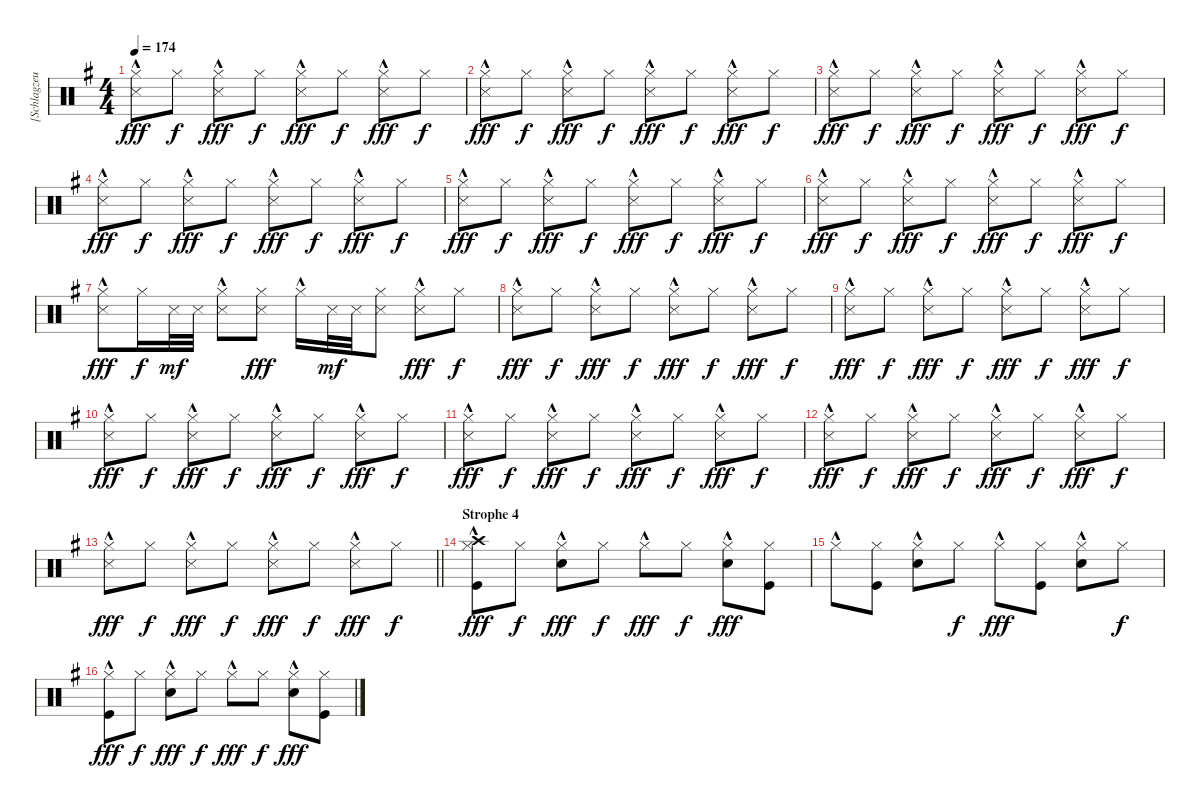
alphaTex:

\track ("[Schlagzeug]" "[Schlagzeu") {instrument percussion}
\staff {score}
\articulation defaults
\ts (4 4)
\tempo 174
\clef neutral
\ks g
("Hi-Hat (closed)"{hac} "Snare (side stick) 3").8{dy fff} "Hi-Hat (closed)".8{dy f} ("Hi-Hat (closed)"{hac} "Snare (side stick) 3").8{dy fff} "Hi-Hat (closed)".8{dy f} ("Hi-Hat (closed)"{hac} "Snare (side stick) 3").8{dy fff} "Hi-Hat (closed)".8{dy f} ("Hi-Hat (closed)"{hac} "Snare (side stick) 3").8{dy fff} "Hi-Hat (closed)".8{dy f} |
("Hi-Hat (closed)"{hac} "Snare (side stick) 3").8{dy fff} "Hi-Hat (closed)".8{dy f} ("Hi-Hat (closed)"{hac} "Snare (side stick) 3").8{dy fff} "Hi-Hat (closed)".8{dy f} ("Hi-Hat (closed)"{hac} "Snare (side stick) 3").8{dy fff} "Hi-Hat (closed)".8{dy f} ("Hi-Hat (closed)"{hac} "Snare (side stick) 3").8{dy fff} "Hi-Hat (closed)".8{dy f} |
("Hi-Hat (closed)"{hac} "Snare (side stick) 3").8{dy fff} "Hi-Hat (closed)".8{dy f} ("Hi-Hat (closed)"{hac} "Snare (side stick) 3").8{dy fff} "Hi-Hat (closed)".8{dy f} ("Hi-Hat (closed)"{hac} "Snare (side stick) 3").8{dy fff} "Hi-Hat (closed)".8{dy f} ("Hi-Hat (closed)"{hac} "Snare (side stick) 3").8{dy fff} "Hi-Hat (closed)".8{dy f} |
("Hi-Hat (closed)"{hac} "Snare (side stick) 3").8{dy fff} "Hi-Hat (closed)".8{dy f} ("Hi-Hat (closed)"{hac} "Snare (side stick) 3").8{dy fff} "Hi-Hat (closed)".8{dy f} ("Hi-Hat (closed)"{hac} "Snare (side stick) 3").8{dy fff} "Hi-Hat (closed)".8{dy f} ("Hi-Hat (closed)"{hac} "Snare (side stick) 3").8{dy fff} "Hi-Hat (closed)".8{dy f} |
("Hi-Hat (closed)"{hac} "Snare (side stick) 3").8{dy fff} "Hi-Hat (closed)".8{dy f} ("Hi-Hat (closed)"{hac} "Snare (side stick) 3").8{dy fff} "Hi-Hat (closed)".8{dy f} ("Hi-Hat (closed)"{hac} "Snare (side stick) 3").8{dy fff} "Hi-Hat (closed)".8{dy f} ("Hi-Hat (closed)"{hac} "Snare (side stick) 3").8{dy fff} "Hi-Hat (closed)".8{dy f} |
("Hi-Hat (closed)"{hac} "Snare (side stick) 3").8{dy fff} "Hi-Hat (closed)".8{dy f} ("Hi-Hat (closed)"{hac} "Snare (side stick) 3").8{dy fff} "Hi-Hat (closed)".8{dy f} ("Hi-Hat (closed)"{hac} "Snare (side stick) 3").8{dy fff} "Hi-Hat (closed)".8{dy f} ("Hi-Hat (closed)"{hac} "Snare (side stick) 3").8{dy fff} "Hi-Hat (closed)".8{dy f} |
("Hi-Hat (closed)"{hac} "Snare (side stick) 3").8{dy fff} "Hi-Hat (closed)".16{dy f} "Snare (side stick) 3".32{dy mf} "Snare (side stick) 3".32 ("Hi-Hat (closed)"{hac} "Snare (side stick) 3").8 ("Hi-Hat (closed)" "Snare (side stick) 3").8{dy fff} "Hi-Hat (closed)"{hac}.16 "Snare (side stick) 3".32{dy mf} "Snare (side stick) 3".32 ("Hi-Hat (closed)" "Snare (side stick) 3").8 ("Hi-Hat (closed)"{hac} "Snare (side stick) 3").8{dy fff} "Hi-Hat (closed)".8{dy f} |
("Hi-Hat (closed)"{hac} "Snare (side stick) 3").8{dy fff} "Hi-Hat (closed)".8{dy f} ("Hi-Hat (closed)"{hac} "Snare (side stick) 3").8{dy fff} "Hi-Hat (closed)".8{dy f} ("Hi-Hat (closed)"{hac} "Snare (side stick) 3").8{dy fff} "Hi-Hat (closed)".8{dy f} ("Hi-Hat (closed)"{hac} "Snare (side stick) 3").8{dy fff} "Hi-Hat (closed)".8{dy f} |
("Hi-Hat (closed)"{hac} "Snare (side stick) 3").8{dy fff} "Hi-Hat (closed)".8{dy f} ("Hi-Hat (closed)"{hac} "Snare (side stick) 3").8{dy fff} "Hi-Hat (closed)".8{dy f} ("Hi-Hat (closed)"{hac} "Snare (side stick) 3").8{dy fff} "Hi-Hat (closed)".8{dy f} ("Hi-Hat (closed)"{hac} "Snare (side stick) 3").8{dy fff} "Hi-Hat (closed)".8{dy f} |
("Hi-Hat (closed)"{hac} "Snare (side stick) 3").8{dy fff} "Hi-Hat (closed)".8{dy f} ("Hi-Hat (closed)"{hac} "Snare (side stick) 3").8{dy fff} "Hi-Hat (closed)".8{dy f} ("Hi-Hat (closed)"{hac} "Snare (side stick) 3").8{dy fff} "Hi-Hat (closed)".8{dy f} ("Hi-Hat (closed)"{hac} "Snare (side stick) 3").8{dy fff} "Hi-Hat (closed)".8{dy f} |
("Hi-Hat (closed)"{hac} "Snare (side stick) 3").8{dy fff} "Hi-Hat (closed)".8{dy f} ("Hi-Hat (closed)"{hac} "Snare (side stick) 3").8{dy fff} "Hi-Hat (closed)".8{dy f} ("Hi-Hat (closed)"{hac} "Snare (side stick) 3").8{dy fff} "Hi-Hat (closed)".8{dy f} ("Hi-Hat (closed)"{hac} "Snare (side stick) 3").8{dy fff} "Hi-Hat (closed)".8{dy f} |
("Hi-Hat (closed)"{hac} "Snare (side stick) 3").8{dy fff} "Hi-Hat (closed)".8{dy f} ("Hi-Hat (closed)"{hac} "Snare (side stick) 3").8{dy fff} "Hi-Hat (closed)".8{dy f} ("Hi-Hat (closed)"{hac} "Snare (side stick) 3").8{dy fff} "Hi-Hat (closed)".8{dy f} ("Hi-Hat (closed)"{hac} "Snare (side stick) 3").8{dy fff} "Hi-Hat (closed)".8{dy f} |
\barLineRight lightlight
("Hi-Hat (closed)"{hac} "Snare (side stick) 3").8{dy fff} "Hi-Hat (closed)".8{dy f} ("Hi-Hat (closed)"{hac} "Snare (side stick) 3").8{dy fff} "Hi-Hat (closed)".8{dy f} ("Hi-Hat (closed)"{hac} "Snare (side stick) 3").8{dy fff} "Hi-Hat (closed)".8{dy f} ("Hi-Hat (closed)"{hac} "Snare (side stick) 3").8{dy fff} "Hi-Hat (closed)".8{dy f} |
\section ("" "Strophe 4")
("Crash high (hit)" "Hi-Hat (closed)"{hac} "Kick (hit)").8{dy fff} "Hi-Hat (closed)".8{dy f} ("Hi-Hat (closed)"{hac} "Electric Snare (hit)").8{dy fff} "Hi-Hat (closed)".8{dy f} "Hi-Hat (closed)"{hac}.8{dy fff} "Hi-Hat (closed)".8{dy f} ("Hi-Hat (closed)"{hac} "Electric Snare (hit)").8{dy fff} ("Hi-Hat (closed)" "Kick (hit)").8 |
"Hi-Hat (closed)"{hac}.8 ("Hi-Hat (closed)" "Kick (hit)").8 ("Hi-Hat (closed)"{hac} "Electric Snare (hit)").8 "Hi-Hat (closed)".8{dy f} "Hi-Hat (closed)"{hac}.8{dy fff} ("Hi-Hat (closed)" "Kick (hit)").8 ("Hi-Hat (closed)"{hac} "Electric Snare (hit)").8 "Hi-Hat (closed)".8{dy f} |
("Hi-Hat (closed)"{hac} "Kick (hit)").8{dy fff} "Hi-Hat (closed)".8{dy f} ("Hi-Hat (closed)"{hac} "Electric Snare (hit)").8{dy fff} "Hi-Hat (closed)".8{dy f} "Hi-Hat (closed)"{hac}.8{dy fff} "Hi-Hat (closed)".8{dy f} ("Hi-Hat (closed)"{hac} "Electric Snare (hit)").8{dy fff} ("Hi-Hat (closed)" "Kick (hit)").8
